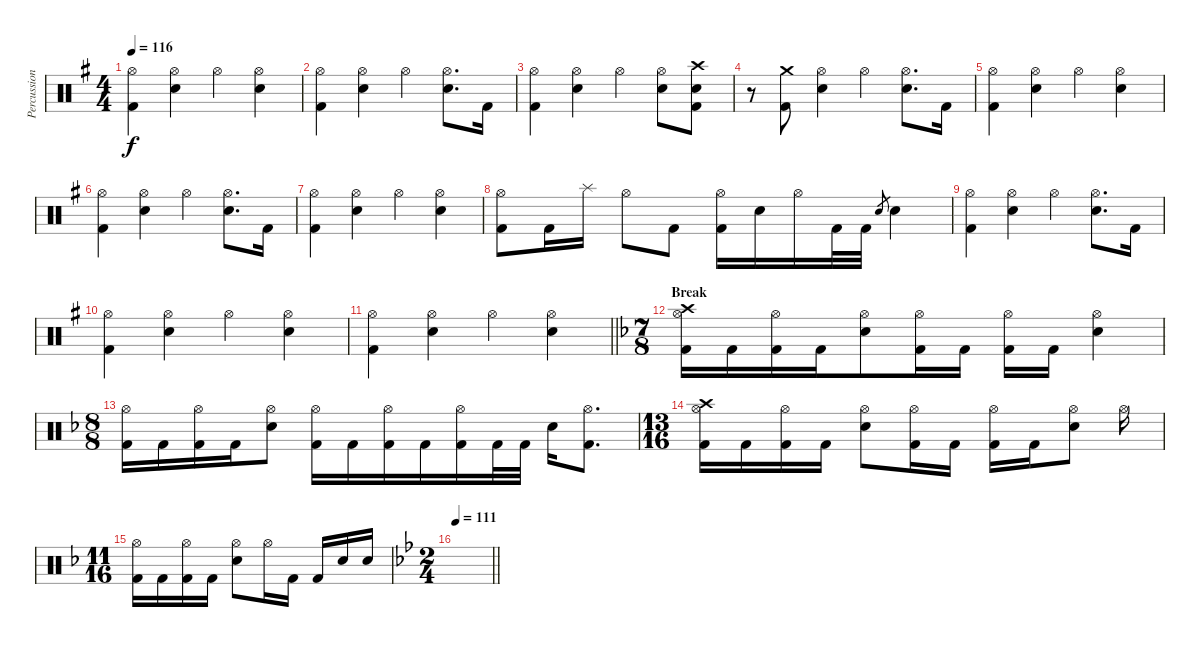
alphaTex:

\track ("Percussions" "Percussion") {instrument percussion}
\staff {score}
\articulation defaults
\ts (4 4)
\tempo 116
\clef neutral
\ks g
("Hi-Hat (open)" "Kick (hit) 2").4{dy f} ("Hi-Hat (open)" "Snare (hit) 2").4 "Hi-Hat (open)".4 ("Hi-Hat (open)" "Snare (hit) 2").4 |
("Hi-Hat (open)" "Kick (hit) 2").4 ("Hi-Hat (open)" "Snare (hit) 2").4 "Hi-Hat (open)".4 ("Hi-Hat (open)" "Snare (hit) 2").8{d} "Kick (hit) 2".16 |
("Hi-Hat (open)" "Kick (hit) 2").4 ("Hi-Hat (open)" "Snare (hit) 2").4 "Hi-Hat (open)".4 ("Hi-Hat (open)" "Snare (hit) 2").8 ("Crash high (hit)" "Snare (hit) 2" "Kick (hit) 2").8 |
r.8 ("Crash medium (hit)" "Kick (hit) 2").8 ("Hi-Hat (open)" "Snare (hit) 2").4 "Hi-Hat (open)".4 ("Hi-Hat (open)" "Snare (hit) 2").8{d} "Kick (hit) 2".16 |
("Hi-Hat (open)" "Kick (hit) 2").4 ("Hi-Hat (open)" "Snare (hit) 2").4 "Hi-Hat (open)".4 ("Hi-Hat (open)" "Snare (hit) 2").4 |
("Hi-Hat (open)" "Kick (hit) 2").4 ("Hi-Hat (open)" "Snare (hit) 2").4 "Hi-Hat (open)".4 ("Hi-Hat (open)" "Snare (hit) 2").8{d} "Kick (hit) 2".16 |
("Hi-Hat (open)" "Kick (hit) 2").4 ("Hi-Hat (open)" "Snare (hit) 2").4 "Hi-Hat (open)".4 ("Hi-Hat (open)" "Snare (hit) 2").4 |
("Hi-Hat (open)" "Kick (hit) 2").8 "Kick (hit) 2".16 "Splash (hit)".16 "Hi-Hat (open)".8 "Kick (hit) 2".8 ("Hi-Hat (open)" "Kick (hit) 2").16 "Snare (hit) 2".16 "Hi-Hat (open)".16 "Kick (hit) 2".32 "Kick (hit) 2".32 "Snare (hit) 2".8{gr} "Snare (hit) 2".4 |
("Hi-Hat (open)" "Kick (hit) 2").4 ("Hi-Hat (open)" "Snare (hit) 2").4 "Hi-Hat (open)".4 ("Hi-Hat (open)" "Snare (hit) 2").8{d} "Kick (hit) 2".16 |
("Hi-Hat (open)" "Kick (hit) 2").4 ("Hi-Hat (open)" "Snare (hit) 2").4 "Hi-Hat (open)".4 ("Hi-Hat (open)" "Snare (hit) 2").4 |
\barLineRight lightlight
("Hi-Hat (open)" "Kick (hit) 2").4 ("Hi-Hat (open)" "Snare (hit) 2").4 "Hi-Hat (open)".4 ("Hi-Hat (open)" "Snare (hit) 2").4 |
\ts (7 8)
\section ("" "Break")
\ks f
("Crash high (hit)" "Hi-Hat (open)" "Kick (hit) 2").16 "Kick (hit) 2".16 ("Hi-Hat (open)" "Kick (hit) 2").16 "Kick (hit) 2".16 ("Hi-Hat (open)" "Snare (hit) 2").8 ("Hi-Hat (open)" "Kick (hit) 2").16 "Kick (hit) 2".16 ("Hi-Hat (open)" "Kick (hit) 2").16 "Kick (hit) 2".16 ("Hi-Hat (open)" "Snare (hit) 2").4 |
\ts (8 8)
("Hi-Hat (open)" "Kick (hit) 2").16 "Kick (hit) 2".16 ("Hi-Hat (open)" "Kick (hit) 2").16 "Kick (hit) 2".16 ("Hi-Hat (open)" "Snare (hit) 2").8 ("Hi-Hat (open)" "Kick (hit) 2").16 "Kick (hit) 2".16 ("Hi-Hat (open)" "Kick (hit) 2").16 "Kick (hit) 2".16 ("Hi-Hat (open)" "Kick (hit) 2").16 "Kick (hit) 2".32 "Kick (hit) 2".32 "Snare (hit) 2".16 ("Hi-Hat (open)" "Kick (hit) 2").8{d} |
\ts (13 16)
("Crash high (hit)" "Hi-Hat (open)" "Kick (hit) 2").16 "Kick (hit) 2".16 ("Hi-Hat (open)" "Kick (hit) 2").16 "Kick (hit) 2".16 ("Hi-Hat (open)" "Snare (hit) 2").8 ("Hi-Hat (open)" "Kick (hit) 2").16 "Kick (hit) 2".16 ("Hi-Hat (open)" "Kick (hit) 2").16 "Kick (hit) 2".16 ("Hi-Hat (open)" "Snare (hit) 2").8 "Hi-Hat (open)".16 |
\ts (11 16)
("Hi-Hat (open)" "Kick (hit) 2").16 "Kick (hit) 2".16 ("Hi-Hat (open)" "Kick (hit) 2").16 "Kick (hit) 2".16 ("Hi-Hat (open)" "Snare (hit) 2").8 "Hi-Hat (open)".16 "Kick (hit) 2".16 "Kick (hit) 2".16 "Snare (hit) 2".16 "Snare (hit) 2".16 |
\ts (2 4)
\tempo 111
\barLineRight lightlight
\ks bb
